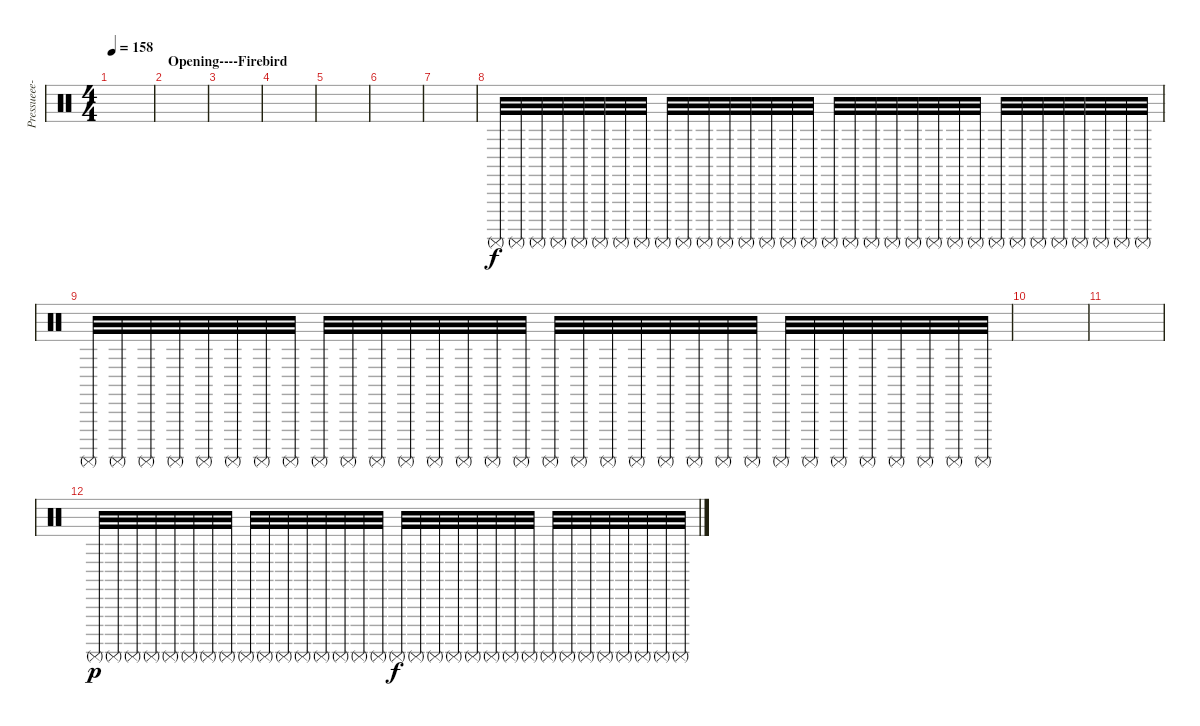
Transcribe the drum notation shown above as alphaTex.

\track ("" "Pressueee-") {instrument percussion}
\staff {score}
\articulation defaults
\ts (4 4)
\tempo 158
\clef neutral
\ks c
|
\section ("" "Opening----Firebird")
|
|
|
|
|
|
"Surdo (mute)".32 "Surdo (mute)".32 "Surdo (mute)".32 "Surdo (mute)".32 "Surdo (mute)".32 "Surdo (mute)".32 "Surdo (mute)".32 "Surdo (mute)".32 "Surdo (mute)".32 "Surdo (mute)".32 "Surdo (mute)".32 "Surdo (mute)".32 "Surdo (mute)".32 "Surdo (mute)".32 "Surdo (mute)".32 "Surdo (mute)".32 "Surdo (mute)".32{dy f} "Surdo (mute)".32 "Surdo (mute)".32 "Surdo (mute)".32 "Surdo (mute)".32 "Surdo (mute)".32 "Surdo (mute)".32 "Surdo (mute)".32 "Surdo (mute)".32 "Surdo (mute)".32 "Surdo (mute)".32 "Surdo (mute)".32 "Surdo (mute)".32 "Surdo (mute)".32 "Surdo (mute)".32 "Surdo (mute)".32 |
"Surdo (mute)".32 "Surdo (mute)".32 "Surdo (mute)".32 "Surdo (mute)".32 "Surdo (mute)".32 "Surdo (mute)".32 "Surdo (mute)".32 "Surdo (mute)".32 "Surdo (mute)".32 "Surdo (mute)".32 "Surdo (mute)".32 "Surdo (mute)".32 "Surdo (mute)".32 "Surdo (mute)".32 "Surdo (mute)".32 "Surdo (mute)".32 "Surdo (mute)".32 "Surdo (mute)".32 "Surdo (mute)".32 "Surdo (mute)".32 "Surdo (mute)".32 "Surdo (mute)".32 "Surdo (mute)".32 "Surdo (mute)".32 "Surdo (mute)".32 "Surdo (mute)".32 "Surdo (mute)".32 "Surdo (mute)".32 "Surdo (mute)".32 "Surdo (mute)".32 "Surdo (mute)".32 "Surdo (mute)".32 |
|
|
"Surdo (mute)".32{dy p} "Surdo (mute)".32 "Surdo (mute)".32 "Surdo (mute)".32 "Surdo (mute)".32 "Surdo (mute)".32 "Surdo (mute)".32 "Surdo (mute)".32 "Surdo (mute)".32 "Surdo (mute)".32 "Surdo (mute)".32 "Surdo (mute)".32 "Surdo (mute)".32 "Surdo (mute)".32 "Surdo (mute)".32 "Surdo (mute)".32 "Surdo (mute)".32{dy f} "Surdo (mute)".32 "Surdo (mute)".32 "Surdo (mute)".32 "Surdo (mute)".32 "Surdo (mute)".32 "Surdo (mute)".32 "Surdo (mute)".32 "Surdo (mute)".32 "Surdo (mute)".32 "Surdo (mute)".32 "Surdo (mute)".32 "Surdo (mute)".32 "Surdo (mute)".32 "Surdo (mute)".32 "Surdo (mute)".32
